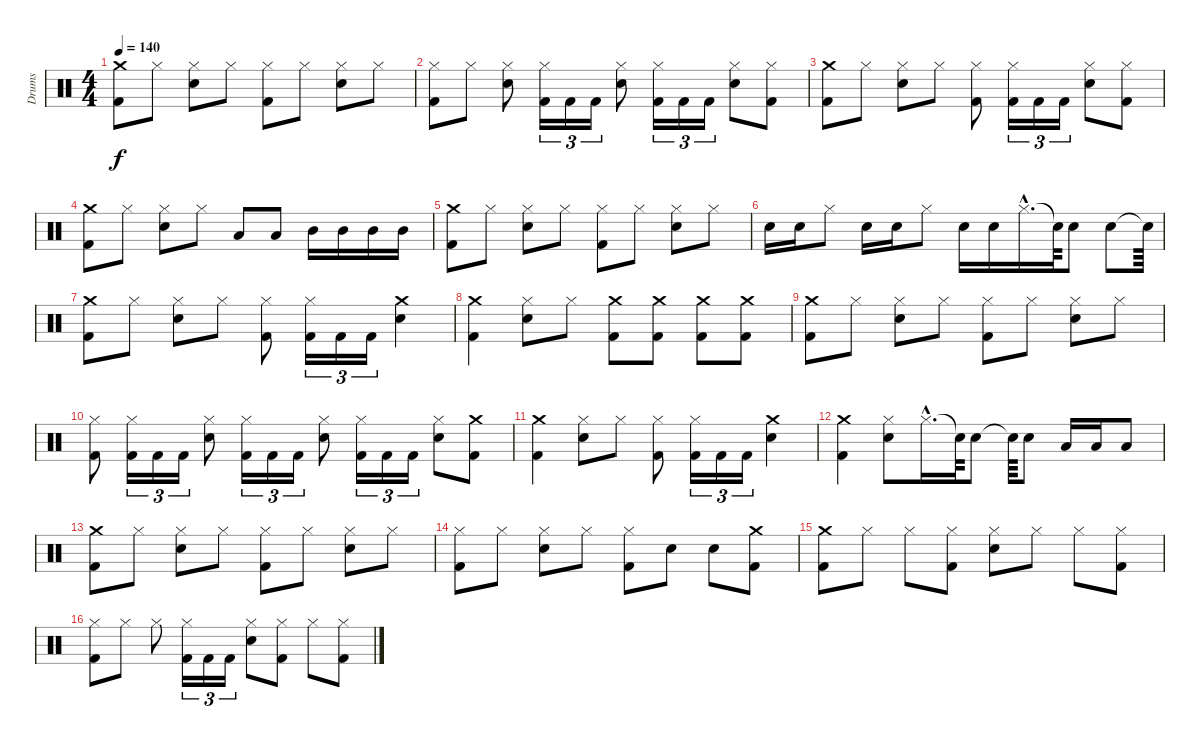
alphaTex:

\track ("Drums" "Drums") {instrument percussion}
\staff {score}
\articulation defaults
\ts (4 4)
\tempo 140
\clef neutral
\ks c
("Crash medium (hit)" "Kick (hit) 2").8{dy f} "Hi-Hat (closed)".8 ("Snare (hit) 2" "Hi-Hat (closed)").8 "Hi-Hat (closed)".8 ("Hi-Hat (closed)" "Kick (hit) 2").8 "Hi-Hat (closed)".8 ("Snare (hit) 2" "Hi-Hat (closed)").8 "Hi-Hat (closed)".8 |
("Kick (hit) 2" "Hi-Hat (closed)").8 "Hi-Hat (closed)".8 ("Snare (hit) 2" "Hi-Hat (closed)").8 ("Kick (hit) 2" "Hi-Hat (closed)").16{tu (3 2)} "Kick (hit) 2".16{tu (3 2)} "Kick (hit) 2".16{tu (3 2)} ("Snare (hit) 2" "Hi-Hat (closed)").8 ("Kick (hit) 2" "Hi-Hat (closed)").16{tu (3 2)} "Kick (hit) 2".16{tu (3 2)} "Kick (hit) 2".16{tu (3 2)} ("Snare (hit) 2" "Hi-Hat (closed)").8 ("Kick (hit) 2" "Hi-Hat (closed)").8 |
("Crash medium (hit)" "Kick (hit) 2").8 "Hi-Hat (closed)".8 ("Snare (hit) 2" "Hi-Hat (closed)").8 "Hi-Hat (closed)".8 ("Hi-Hat (closed)" "Kick (hit) 2").8 ("Hi-Hat (closed)" "Kick (hit) 2").16{tu (3 2)} "Kick (hit) 2".16{tu (3 2)} "Kick (hit) 2".16{tu (3 2)} ("Snare (hit) 2" "Hi-Hat (closed)").8 ("Hi-Hat (closed)" "Kick (hit) 2").8 |
("Kick (hit) 2" "Crash medium (hit)").8 "Hi-Hat (closed)".8 ("Snare (hit) 2" "Hi-Hat (closed)").8 "Hi-Hat (closed)".8 "Low Tom (hit)".8 "Low Tom (hit)".8 "Mid Tom (hit)".16 "Mid Tom (hit)".16 "Mid Tom (hit)".16 "Mid Tom (hit)".16 |
("Crash medium (hit)" "Kick (hit) 2").8 "Hi-Hat (closed)".8 ("Snare (hit) 2" "Hi-Hat (closed)").8 "Hi-Hat (closed)".8 ("Hi-Hat (closed)" "Kick (hit) 2").8 "Hi-Hat (closed)".8 ("Snare (hit) 2" "Hi-Hat (closed)").8 "Hi-Hat (closed)".8 |
"Snare (hit) 2".16 "Snare (hit) 2".16 "Hi-Hat (closed)".8 "Snare (hit) 2".16 "Snare (hit) 2".16 "Hi-Hat (closed)".8 "Snare (hit) 2".16 "Snare (hit) 2".16 "Hi-Hat (closed)"{hac}.16{d} "Snare (hit)"{t}.64 "Snare (hit) 2".8 "Snare (hit) 2".8 "Snare (hit)"{t}.64 |
("Crash medium (hit)" "Kick (hit) 2").8 "Hi-Hat (closed)".8 ("Snare (hit) 2" "Hi-Hat (closed)").8 "Hi-Hat (closed)".8 ("Hi-Hat (closed)" "Kick (hit) 2").8 ("Hi-Hat (closed)" "Kick (hit) 2").16{tu (3 2)} "Kick (hit) 2".16{tu (3 2)} "Kick (hit) 2".16{tu (3 2)} ("Snare (hit) 2" "Crash medium (hit)").4 |
("Kick (hit) 2" "Crash medium (hit)").4 ("Snare (hit) 2" "Hi-Hat (closed)").8 "Hi-Hat (closed)".8 ("Kick (hit) 2" "Crash medium (hit)").8 ("Kick (hit) 2" "Crash medium (hit)").8 ("Kick (hit) 2" "Crash medium (hit)").8 ("Kick (hit) 2" "Crash medium (hit)").8 |
("Crash medium (hit)" "Kick (hit) 2").8 "Hi-Hat (closed)".8 ("Snare (hit) 2" "Hi-Hat (closed)").8 "Hi-Hat (closed)".8 ("Hi-Hat (closed)" "Kick (hit) 2").8 "Hi-Hat (closed)".8 ("Snare (hit) 2" "Hi-Hat (closed)").8 "Hi-Hat (closed)".8 |
("Kick (hit) 2" "Hi-Hat (closed)").8 ("Kick (hit) 2" "Hi-Hat (closed)").16{tu (3 2)} "Kick (hit) 2".16{tu (3 2)} "Kick (hit) 2".16{tu (3 2)} ("Snare (hit) 2" "Hi-Hat (closed)").8 ("Kick (hit) 2" "Hi-Hat (closed)").16{tu (3 2)} "Kick (hit) 2".16{tu (3 2)} "Kick (hit) 2".16{tu (3 2)} ("Snare (hit) 2" "Hi-Hat (closed)").8 ("Kick (hit) 2" "Hi-Hat (closed)").16{tu (3 2)} "Kick (hit) 2".16{tu (3 2)} "Kick (hit) 2".16{tu (3 2)} ("Snare (hit) 2" "Hi-Hat (closed)").8 ("Crash medium (hit)" "Kick (hit) 2").8 |
("Kick (hit) 2" "Crash medium (hit)").4 ("Snare (hit) 2" "Hi-Hat (closed)").8 "Hi-Hat (closed)".8 ("Hi-Hat (closed)" "Kick (hit) 2").8 ("Hi-Hat (closed)" "Kick (hit) 2").16{tu (3 2)} "Kick (hit) 2".16{tu (3 2)} "Kick (hit) 2".16{tu (3 2)} ("Snare (hit) 2" "Crash medium (hit)").4 |
("Kick (hit) 2" "Crash medium (hit)").4 ("Hi-Hat (closed)" "Snare (hit) 2").8 "Hi-Hat (closed)"{hac}.16{d} "Snare (hit)"{t}.64 "Snare (hit) 2".8 "Snare (hit)"{t}.64 "Snare (hit) 2".8 "Low Tom (hit)".16 "Low Tom (hit)".16 "Low Tom (hit)".8 |
("Kick (hit) 2" "Crash medium (hit)").8 "Hi-Hat (closed)".8 ("Snare (hit) 2" "Hi-Hat (closed)").8 "Hi-Hat (closed)".8 ("Kick (hit) 2" "Hi-Hat (closed)").8 "Hi-Hat (closed)".8 ("Snare (hit) 2" "Hi-Hat (closed)").8 "Hi-Hat (closed)".8 |
("Hi-Hat (closed)" "Kick (hit) 2").8 "Hi-Hat (closed)".8 ("Snare (hit) 2" "Hi-Hat (closed)").8 "Hi-Hat (closed)".8 ("Hi-Hat (closed)" "Kick (hit) 2").8 "Snare (hit) 2".8 "Snare (hit) 2".8 ("Crash medium (hit)" "Kick (hit) 2").8 |
("Kick (hit) 2" "Crash medium (hit)").8 "Hi-Hat (closed)".8 "Hi-Hat (closed)".8 ("Kick (hit) 2" "Hi-Hat (closed)").8 ("Hi-Hat (closed)" "Snare (hit) 2").8 "Hi-Hat (closed)".8 "Hi-Hat (closed)".8 ("Kick (hit) 2" "Hi-Hat (closed)").8 |
("Hi-Hat (closed)" "Kick (hit) 2").8 "Hi-Hat (closed)".8 "Hi-Hat (closed)".8 ("Hi-Hat (closed)" "Kick (hit) 2").16{tu (3 2)} "Kick (hit) 2".16{tu (3 2)} "Kick (hit) 2".16{tu (3 2)} ("Snare (hit) 2" "Hi-Hat (closed)").8 ("Hi-Hat (closed)" "Kick (hit) 2").8 "Hi-Hat (closed)".8 ("Hi-Hat (closed)" "Kick (hit) 2").8
